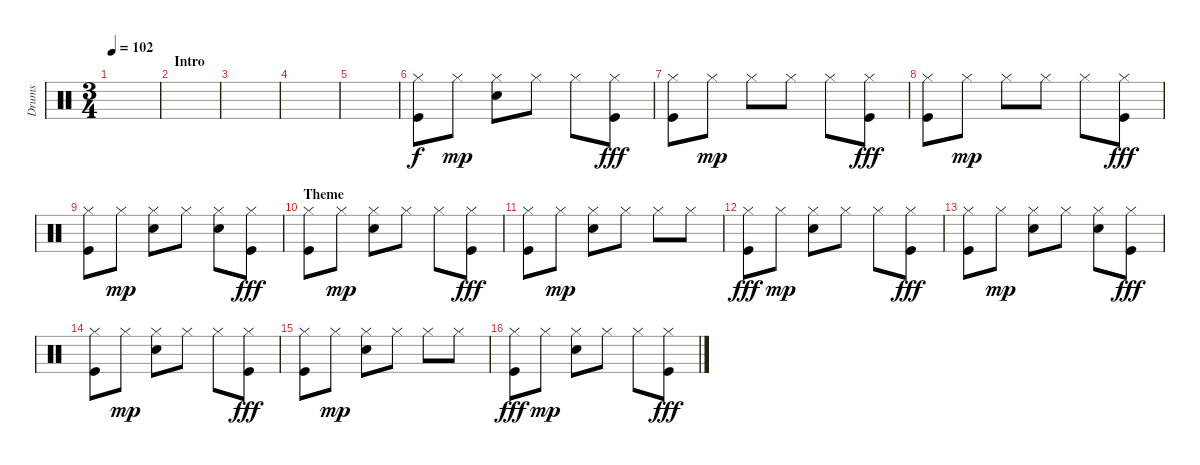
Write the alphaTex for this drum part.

\track ("Drums" "Drums") {instrument percussion}
\staff {score}
\articulation defaults
\ts (3 4)
\tempo 102
\clef neutral
\ks c
|
\section ("" "Intro")
|
|
|
|
("Hi-Hat (closed)" "Kick (hit)").8 "Hi-Hat (closed)".8{dy mp} ("Hi-Hat (closed)" "Snare (hit) 2").8 "Hi-Hat (closed)".8 "Hi-Hat (closed)".8 ("Hi-Hat (closed)" "Kick (hit)").8{dy fff} |
("Hi-Hat (closed)" "Kick (hit)").8 "Hi-Hat (closed)".8{dy mp} "Hi-Hat (closed)".8 "Hi-Hat (closed)".8 "Hi-Hat (closed)".8 ("Hi-Hat (closed)" "Kick (hit)").8{dy fff} |
("Hi-Hat (closed)" "Kick (hit)").8 "Hi-Hat (closed)".8{dy mp} "Hi-Hat (closed)".8 "Hi-Hat (closed)".8 "Hi-Hat (closed)".8 ("Hi-Hat (closed)" "Kick (hit)").8{dy fff} |
("Hi-Hat (closed)" "Kick (hit)").8 "Hi-Hat (closed)".8{dy mp} ("Hi-Hat (closed)" "Snare (hit) 2").8 "Hi-Hat (closed)".8 ("Hi-Hat (closed)" "Snare (hit) 2").8 ("Hi-Hat (closed)" "Kick (hit)").8{dy fff} |
\section ("" "Theme")
("Hi-Hat (closed)" "Kick (hit)").8 "Hi-Hat (closed)".8{dy mp} ("Hi-Hat (closed)" "Snare (hit) 2").8 "Hi-Hat (closed)".8 "Hi-Hat (closed)".8 ("Hi-Hat (closed)" "Kick (hit)").8{dy fff} |
("Hi-Hat (closed)" "Kick (hit)").8 "Hi-Hat (closed)".8{dy mp} ("Hi-Hat (closed)" "Snare (hit) 2").8 "Hi-Hat (closed)".8 "Hi-Hat (closed)".8 "Hi-Hat (closed)".8 |
("Hi-Hat (closed)" "Kick (hit)").8{dy fff} "Hi-Hat (closed)".8{dy mp} ("Hi-Hat (closed)" "Snare (hit) 2").8 "Hi-Hat (closed)".8 "Hi-Hat (closed)".8 ("Hi-Hat (closed)" "Kick (hit)").8{dy fff} |
("Hi-Hat (closed)" "Kick (hit)").8 "Hi-Hat (closed)".8{dy mp} ("Hi-Hat (closed)" "Snare (hit) 2").8 "Hi-Hat (closed)".8 ("Hi-Hat (closed)" "Snare (hit) 2").8 ("Hi-Hat (closed)" "Kick (hit)").8{dy fff} |
("Hi-Hat (closed)" "Kick (hit)").8 "Hi-Hat (closed)".8{dy mp} ("Hi-Hat (closed)" "Snare (hit) 2").8 "Hi-Hat (closed)".8 "Hi-Hat (closed)".8 ("Hi-Hat (closed)" "Kick (hit)").8{dy fff} |
("Hi-Hat (closed)" "Kick (hit)").8 "Hi-Hat (closed)".8{dy mp} ("Hi-Hat (closed)" "Snare (hit) 2").8 "Hi-Hat (closed)".8 "Hi-Hat (closed)".8 "Hi-Hat (closed)".8 |
("Hi-Hat (closed)" "Kick (hit)").8{dy fff} "Hi-Hat (closed)".8{dy mp} ("Hi-Hat (closed)" "Snare (hit) 2").8 "Hi-Hat (closed)".8 "Hi-Hat (closed)".8 ("Hi-Hat (closed)" "Kick (hit)").8{dy fff}
